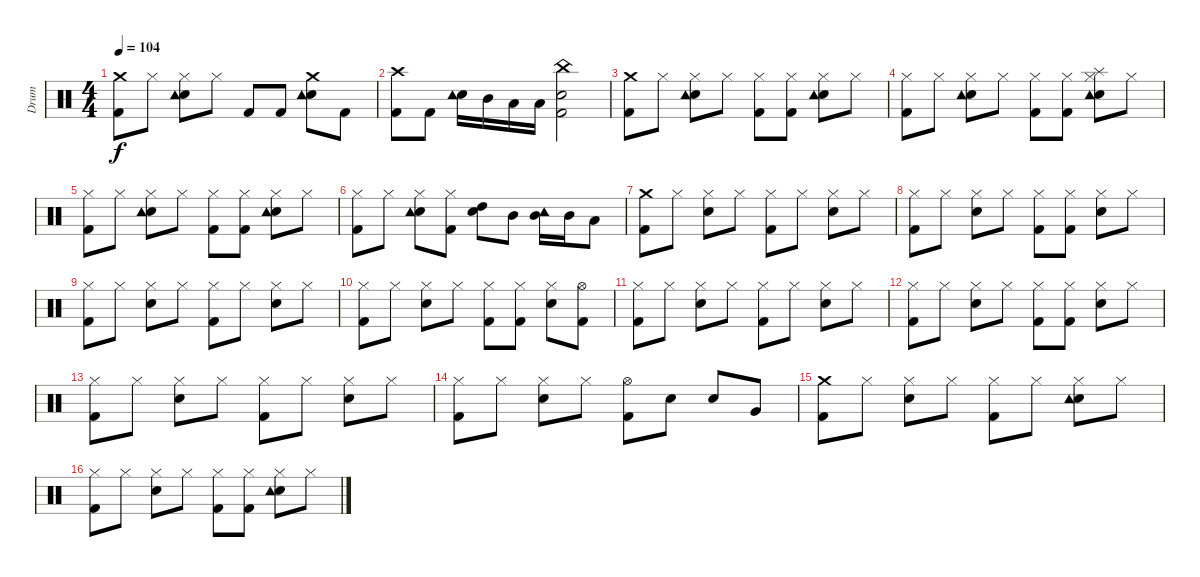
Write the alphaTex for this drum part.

\track ("Drum" "Drum") {instrument percussion}
\staff {score}
\articulation defaults
\ts (4 4)
\tempo 104
\clef neutral
\ks c
("Crash medium (hit)" "Kick (hit) 2").8{dy f} "Hi-Hat (closed)".8 ("Snare (hit) 2" "Hi-Hat (closed)" "Tambourine (hit)").8 "Hi-Hat (closed)".8 "Kick (hit) 2".8 "Kick (hit) 2".8 ("Snare (hit) 2" "Crash medium (hit)" "Tambourine (hit)").8 "Kick (hit) 2".8 |
("Crash high (hit)" "Kick (hit) 2").8 "Kick (hit) 2".8 ("Snare (hit) 2" "Tambourine (hit)").16 "Mid Tom (hit)".16 "Low Tom (hit)".16 "Low Tom (hit)".16 ("Snare (hit) 2" "China (hit)" "Kick (hit) 2").2 |
("Crash medium (hit)" "Kick (hit) 2").8 "Hi-Hat (closed)".8 ("Snare (hit) 2" "Hi-Hat (closed)" "Tambourine (hit)").8 "Hi-Hat (closed)".8 ("Hi-Hat (closed)" "Kick (hit) 2").8 ("Hi-Hat (closed)" "Kick (hit) 2").8 ("Snare (hit) 2" "Hi-Hat (closed)" "Tambourine (hit)").8 "Hi-Hat (closed)".8 |
("Hi-Hat (closed)" "Kick (hit) 2").8 "Hi-Hat (closed)".8 ("Snare (hit) 2" "Hi-Hat (closed)" "Tambourine (hit)").8 "Hi-Hat (closed)".8 ("Hi-Hat (closed)" "Kick (hit) 2").8 ("Hi-Hat (closed)" "Kick (hit) 2").8 ("Snare (hit) 2" "Hi-Hat (closed)" "Tambourine (hit)" "Splash (hit)").8 "Hi-Hat (closed)".8 |
("Hi-Hat (closed)" "Kick (hit) 2").8 "Hi-Hat (closed)".8 ("Snare (hit) 2" "Hi-Hat (closed)" "Tambourine (hit)").8 "Hi-Hat (closed)".8 ("Hi-Hat (closed)" "Kick (hit) 2").8 ("Hi-Hat (closed)" "Kick (hit) 2").8 ("Snare (hit) 2" "Hi-Hat (closed)" "Tambourine (hit)").8 "Hi-Hat (closed)".8 |
("Hi-Hat (closed)" "Kick (hit) 2").8 "Hi-Hat (closed)".8 ("Snare (hit) 2" "Hi-Hat (closed)" "Tambourine (hit)").8 ("Hi-Hat (closed)" "Kick (hit) 2").8 ("High Tom (hit)" "Snare (hit) 2").8 "Mid Tom (hit)".8 ("Mid Tom (hit)" "Tambourine (hit)").16 "Mid Tom (hit)".16 "Low Tom (hit)".8 |
("Crash medium (hit)" "Kick (hit) 2").8 "Hi-Hat (closed)".8 ("Snare (hit) 2" "Hi-Hat (closed)").8 "Hi-Hat (closed)".8 ("Hi-Hat (closed)" "Kick (hit) 2").8 "Hi-Hat (closed)".8 ("Snare (hit) 2" "Hi-Hat (closed)").8 "Hi-Hat (closed)".8 |
("Hi-Hat (closed)" "Kick (hit) 2").8 "Hi-Hat (closed)".8 ("Snare (hit) 2" "Hi-Hat (closed)").8 "Hi-Hat (closed)".8 ("Hi-Hat (closed)" "Kick (hit) 2").8 ("Hi-Hat (closed)" "Kick (hit) 2").8 ("Snare (hit) 2" "Hi-Hat (closed)").8 "Hi-Hat (closed)".8 |
("Hi-Hat (closed)" "Kick (hit) 2").8 "Hi-Hat (closed)".8 ("Snare (hit) 2" "Hi-Hat (closed)").8 "Hi-Hat (closed)".8 ("Hi-Hat (closed)" "Kick (hit) 2").8 "Hi-Hat (closed)".8 ("Snare (hit) 2" "Hi-Hat (closed)").8 "Hi-Hat (closed)".8 |
("Hi-Hat (closed)" "Kick (hit) 2").8 "Hi-Hat (closed)".8 ("Snare (hit) 2" "Hi-Hat (closed)").8 "Hi-Hat (closed)".8 ("Hi-Hat (closed)" "Kick (hit) 2").8 ("Hi-Hat (closed)" "Kick (hit) 2").8 ("Snare (hit) 2" "Hi-Hat (closed)").8 ("Hi-Hat (open)" "Kick (hit) 2").8 |
("Hi-Hat (closed)" "Kick (hit) 2").8 "Hi-Hat (closed)".8 ("Snare (hit) 2" "Hi-Hat (closed)").8 "Hi-Hat (closed)".8 ("Hi-Hat (closed)" "Kick (hit) 2").8 "Hi-Hat (closed)".8 ("Snare (hit) 2" "Hi-Hat (closed)").8 "Hi-Hat (closed)".8 |
("Hi-Hat (closed)" "Kick (hit) 2").8 "Hi-Hat (closed)".8 ("Snare (hit) 2" "Hi-Hat (closed)").8 "Hi-Hat (closed)".8 ("Hi-Hat (closed)" "Kick (hit) 2").8 ("Hi-Hat (closed)" "Kick (hit) 2").8 ("Snare (hit) 2" "Hi-Hat (closed)").8 "Hi-Hat (closed)".8 |
("Hi-Hat (closed)" "Kick (hit) 2").8 "Hi-Hat (closed)".8 ("Snare (hit) 2" "Hi-Hat (closed)").8 "Hi-Hat (closed)".8 ("Hi-Hat (closed)" "Kick (hit) 2").8 "Hi-Hat (closed)".8 ("Snare (hit) 2" "Hi-Hat (closed)").8 "Hi-Hat (closed)".8 |
("Hi-Hat (closed)" "Kick (hit) 2").8 "Hi-Hat (closed)".8 ("Snare (hit) 2" "Hi-Hat (closed)").8 "Hi-Hat (closed)".8 ("Hi-Hat (open)" "Kick (hit) 2").8 "Snare (hit) 2".8 "Snare (hit) 2".8 "Very Low Tom (hit)".8 |
("Crash medium (hit)" "Kick (hit) 2").8 "Hi-Hat (closed)".8 ("Snare (hit) 2" "Hi-Hat (closed)").8 "Hi-Hat (closed)".8 ("Hi-Hat (closed)" "Kick (hit) 2").8 "Hi-Hat (closed)".8 ("Snare (hit) 2" "Hi-Hat (closed)" "Tambourine (hit)").8 "Hi-Hat (closed)".8 |
("Hi-Hat (closed)" "Kick (hit) 2").8 "Hi-Hat (closed)".8 ("Snare (hit) 2" "Hi-Hat (closed)").8 "Hi-Hat (closed)".8 ("Hi-Hat (closed)" "Kick (hit) 2").8 ("Hi-Hat (closed)" "Kick (hit) 2").8 ("Snare (hit) 2" "Hi-Hat (closed)" "Tambourine (hit)").8 "Hi-Hat (closed)".8
